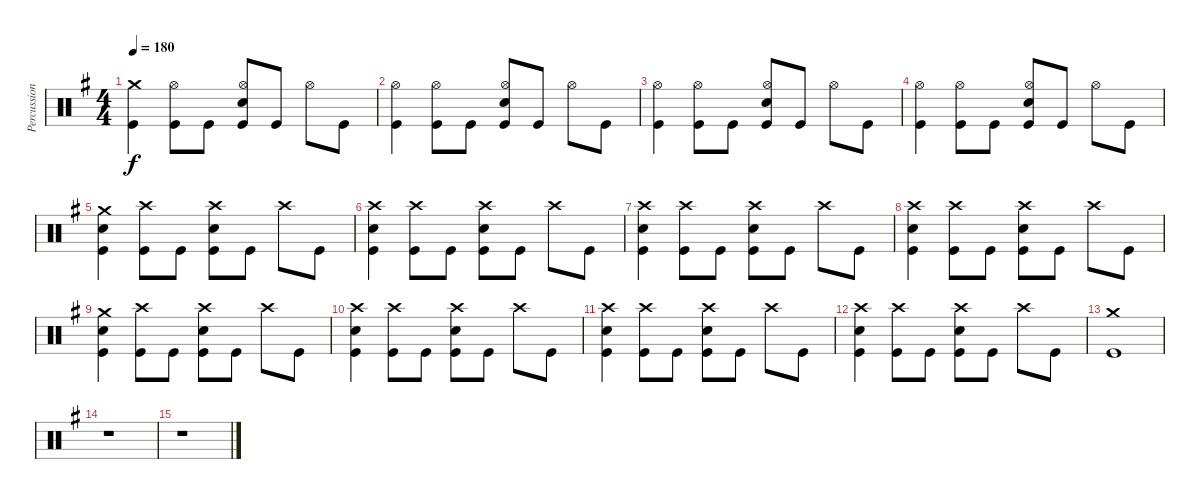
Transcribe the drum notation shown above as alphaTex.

\track ("Percussion" "Percussion") {instrument percussion}
\staff {score}
\articulation defaults
\ts (4 4)
\tempo 180
\clef neutral
\ks g
("Crash medium (hit)" "Kick (hit)").4{dy f} ("Hi-Hat (open)" "Kick (hit)").8 "Kick (hit)".8 ("Hi-Hat (open)" "Electric Snare (hit)" "Kick (hit)").8 "Kick (hit)".8 "Hi-Hat (open)".8 "Kick (hit)".8 |
("Hi-Hat (open)" "Kick (hit)").4 ("Hi-Hat (open)" "Kick (hit)").8 "Kick (hit)".8 ("Hi-Hat (open)" "Electric Snare (hit)" "Kick (hit)").8 "Kick (hit)".8 "Hi-Hat (open)".8 "Kick (hit)".8 |
("Hi-Hat (open)" "Kick (hit)").4 ("Hi-Hat (open)" "Kick (hit)").8 "Kick (hit)".8 ("Hi-Hat (open)" "Electric Snare (hit)" "Kick (hit)").8 "Kick (hit)".8 "Hi-Hat (open)".8 "Kick (hit)".8 |
("Hi-Hat (open)" "Kick (hit)").4 ("Hi-Hat (open)" "Kick (hit)").8 "Kick (hit)".8 ("Hi-Hat (open)" "Electric Snare (hit)" "Kick (hit)").8 "Kick (hit)".8 "Hi-Hat (open)".8 "Kick (hit)".8 |
("Crash medium (hit)" "Electric Snare (hit)" "Kick (hit)").4 ("Crash high (hit)" "Kick (hit)").8 "Kick (hit)".8 ("Crash high (hit)" "Electric Snare (hit)" "Kick (hit)").8 "Kick (hit)".8 "Crash high (hit)".8 "Kick (hit)".8 |
("Crash high (hit)" "Electric Snare (hit)" "Kick (hit)").4 ("Crash high (hit)" "Kick (hit)").8 "Kick (hit)".8 ("Crash high (hit)" "Electric Snare (hit)" "Kick (hit)").8 "Kick (hit)".8 "Crash high (hit)".8 "Kick (hit)".8 |
("Crash high (hit)" "Electric Snare (hit)" "Kick (hit)").4 ("Crash high (hit)" "Kick (hit)").8 "Kick (hit)".8 ("Crash high (hit)" "Electric Snare (hit)" "Kick (hit)").8 "Kick (hit)".8 "Crash high (hit)".8 "Kick (hit)".8 |
("Crash high (hit)" "Electric Snare (hit)" "Kick (hit)").4 ("Crash high (hit)" "Kick (hit)").8 "Kick (hit)".8 ("Crash high (hit)" "Electric Snare (hit)" "Kick (hit)").8 "Kick (hit)".8 "Crash high (hit)".8 "Kick (hit)".8 |
("Crash medium (hit)" "Electric Snare (hit)" "Kick (hit)").4 ("Crash high (hit)" "Kick (hit)").8 "Kick (hit)".8 ("Crash high (hit)" "Electric Snare (hit)" "Kick (hit)").8 "Kick (hit)".8 "Crash high (hit)".8 "Kick (hit)".8 |
("Crash high (hit)" "Electric Snare (hit)" "Kick (hit)").4 ("Crash high (hit)" "Kick (hit)").8 "Kick (hit)".8 ("Crash high (hit)" "Electric Snare (hit)" "Kick (hit)").8 "Kick (hit)".8 "Crash high (hit)".8 "Kick (hit)".8 |
("Crash high (hit)" "Electric Snare (hit)" "Kick (hit)").4 ("Crash high (hit)" "Kick (hit)").8 "Kick (hit)".8 ("Crash high (hit)" "Electric Snare (hit)" "Kick (hit)").8 "Kick (hit)".8 "Crash high (hit)".8 "Kick (hit)".8 |
("Crash high (hit)" "Electric Snare (hit)" "Kick (hit)").4 ("Crash high (hit)" "Kick (hit)").8 "Kick (hit)".8 ("Crash high (hit)" "Electric Snare (hit)" "Kick (hit)").8 "Kick (hit)".8 "Crash high (hit)".8 "Kick (hit)".8 |
("Crash medium (hit)" "Kick (hit)").1 |
r.1 |
r.1
